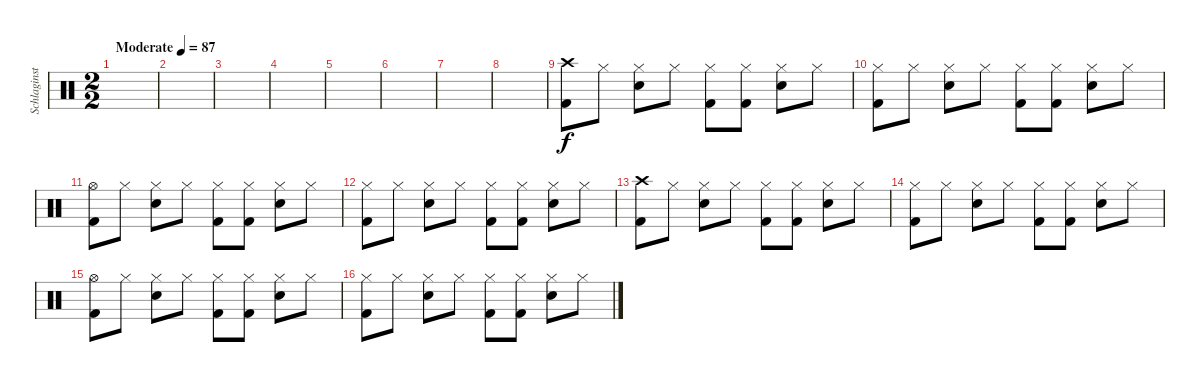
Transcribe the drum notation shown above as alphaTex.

\track ("Schlaginstrumente - Auswahl" "Schlaginst") {instrument percussion}
\staff {score}
\articulation defaults
\ts (2 2)
\tempo (87 "Moderate")
\clef neutral
\ks c
|
|
|
|
|
|
|
|
("Crash high (hit)" "Kick (hit) 2").8 "Hi-Hat (closed)".8 ("Hi-Hat (closed)" "Electric Snare (hit)").8 "Hi-Hat (closed)".8 ("Hi-Hat (closed)" "Kick (hit) 2").8 ("Hi-Hat (closed)" "Kick (hit) 2").8 ("Hi-Hat (closed)" "Electric Snare (hit)").8 "Hi-Hat (closed)".8 |
("Hi-Hat (closed)" "Kick (hit) 2").8 "Hi-Hat (closed)".8 ("Hi-Hat (closed)" "Electric Snare (hit)").8 "Hi-Hat (closed)".8 ("Hi-Hat (closed)" "Kick (hit) 2").8 ("Hi-Hat (closed)" "Kick (hit) 2").8 ("Hi-Hat (closed)" "Electric Snare (hit)").8 "Hi-Hat (closed)".8 |
("Hi-Hat (open)" "Kick (hit) 2").8 "Hi-Hat (closed)".8 ("Hi-Hat (closed)" "Electric Snare (hit)").8 "Hi-Hat (closed)".8 ("Hi-Hat (closed)" "Kick (hit) 2").8 ("Hi-Hat (closed)" "Kick (hit) 2").8 ("Hi-Hat (closed)" "Electric Snare (hit)").8 "Hi-Hat (closed)".8 |
("Hi-Hat (closed)" "Kick (hit) 2").8 "Hi-Hat (closed)".8 ("Hi-Hat (closed)" "Electric Snare (hit)").8 "Hi-Hat (closed)".8 ("Hi-Hat (closed)" "Kick (hit) 2").8 ("Hi-Hat (closed)" "Kick (hit) 2").8 ("Hi-Hat (closed)" "Electric Snare (hit)").8 "Hi-Hat (closed)".8 |
("Crash high (hit)" "Kick (hit) 2").8 "Hi-Hat (closed)".8 ("Hi-Hat (closed)" "Electric Snare (hit)").8 "Hi-Hat (closed)".8 ("Hi-Hat (closed)" "Kick (hit) 2").8 ("Hi-Hat (closed)" "Kick (hit) 2").8 ("Hi-Hat (closed)" "Electric Snare (hit)").8 "Hi-Hat (closed)".8 |
("Hi-Hat (closed)" "Kick (hit) 2").8 "Hi-Hat (closed)".8 ("Hi-Hat (closed)" "Electric Snare (hit)").8 "Hi-Hat (closed)".8 ("Hi-Hat (closed)" "Kick (hit) 2").8 ("Hi-Hat (closed)" "Kick (hit) 2").8 ("Hi-Hat (closed)" "Electric Snare (hit)").8 "Hi-Hat (closed)".8 |
("Hi-Hat (open)" "Kick (hit) 2").8 "Hi-Hat (closed)".8 ("Hi-Hat (closed)" "Electric Snare (hit)").8 "Hi-Hat (closed)".8 ("Hi-Hat (closed)" "Kick (hit) 2").8 ("Hi-Hat (closed)" "Kick (hit) 2").8 ("Hi-Hat (closed)" "Electric Snare (hit)").8 "Hi-Hat (closed)".8 |
("Hi-Hat (closed)" "Kick (hit) 2").8 "Hi-Hat (closed)".8 ("Hi-Hat (closed)" "Electric Snare (hit)").8 "Hi-Hat (closed)".8 ("Hi-Hat (closed)" "Kick (hit) 2").8 ("Hi-Hat (closed)" "Kick (hit) 2").8 ("Hi-Hat (closed)" "Electric Snare (hit)").8 "Hi-Hat (closed)".8
